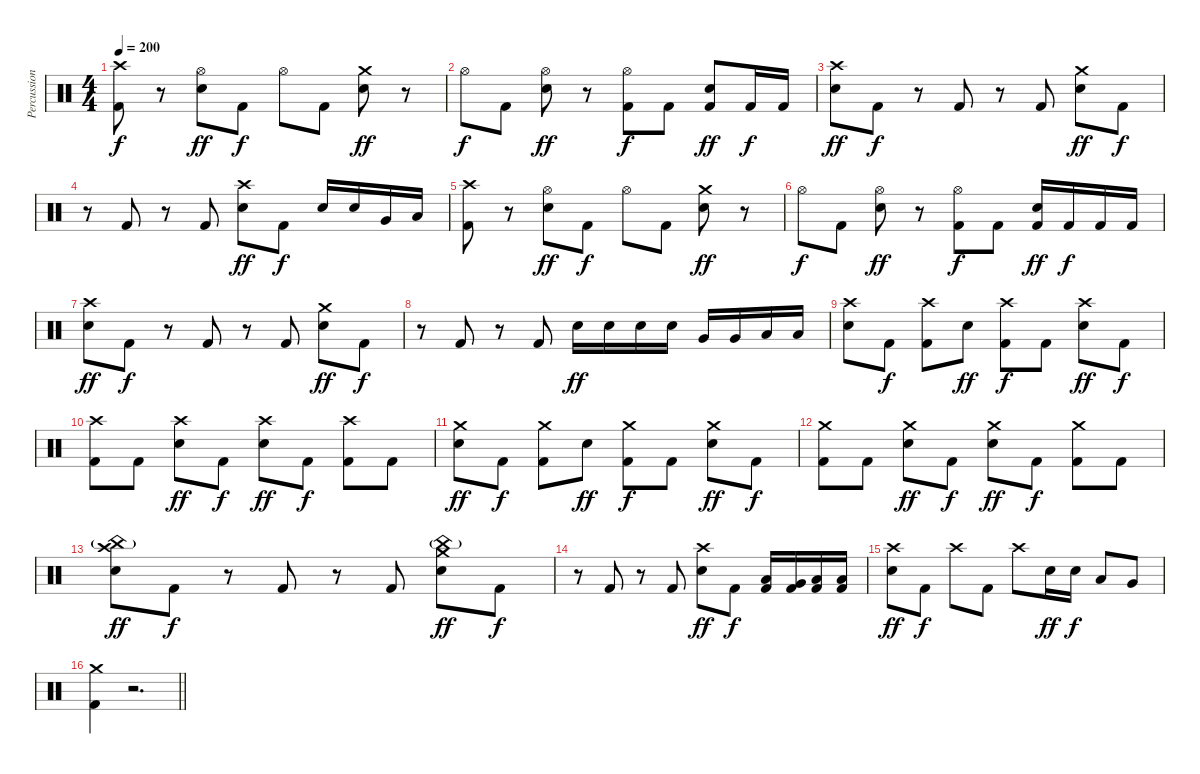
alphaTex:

\track ("Percussion" "Percussion") {instrument percussion}
\staff {score}
\articulation defaults
\ts (4 4)
\section ("" "")
\tempo 200
\clef neutral
\ks c
("Crash high (hit)" "Kick (hit) 2").8{dy f} r.8 ("Hi-Hat (open)" "Electric Snare (hit)").8{dy ff} "Kick (hit) 2".8{dy f} "Hi-Hat (open)".8 "Kick (hit) 2".8 ("Crash medium (hit)" "Electric Snare (hit)").8{dy ff} r.8 |
"Hi-Hat (open)".8{dy f} "Kick (hit) 2".8 ("Hi-Hat (open)" "Electric Snare (hit)").8{dy ff} r.8 ("Hi-Hat (open)" "Kick (hit) 2").8{dy f} "Kick (hit) 2".8 ("Electric Snare (hit)" "Kick (hit) 2").8{dy ff} "Kick (hit) 2".16{dy f} "Kick (hit) 2".16 |
("Crash high (hit)" "Electric Snare (hit)").8{dy ff} "Kick (hit) 2".8{dy f} r.8 "Kick (hit) 2".8 r.8 "Kick (hit) 2".8 ("Crash medium (hit)" "Electric Snare (hit)").8{dy ff} "Kick (hit) 2".8{dy f} |
r.8 "Kick (hit) 2".8 r.8 "Kick (hit) 2".8 ("Crash high (hit)" "Electric Snare (hit)").8{dy ff} "Kick (hit) 2".8{dy f} "Electric Snare (hit)".16 "Electric Snare (hit)".16 "Very Low Tom (hit)".16 "Low Tom (hit)".16 |
("Crash high (hit)" "Kick (hit) 2").8 r.8 ("Hi-Hat (open)" "Electric Snare (hit)").8{dy ff} "Kick (hit) 2".8{dy f} "Hi-Hat (open)".8 "Kick (hit) 2".8 ("Crash medium (hit)" "Electric Snare (hit)").8{dy ff} r.8 |
"Hi-Hat (open)".8{dy f} "Kick (hit) 2".8 ("Hi-Hat (open)" "Electric Snare (hit)").8{dy ff} r.8 ("Hi-Hat (open)" "Kick (hit) 2").8{dy f} "Kick (hit) 2".8 ("Electric Snare (hit)" "Kick (hit) 2").16{dy ff} "Kick (hit) 2".16{dy f} "Kick (hit) 2".16 "Kick (hit) 2".16 |
("Crash high (hit)" "Electric Snare (hit)").8{dy ff} "Kick (hit) 2".8{dy f} r.8 "Kick (hit) 2".8 r.8 "Kick (hit) 2".8 ("Crash medium (hit)" "Electric Snare (hit)").8{dy ff} "Kick (hit) 2".8{dy f} |
r.8 "Kick (hit) 2".8 r.8 "Kick (hit) 2".8 "Electric Snare (hit)".16{dy ff} "Electric Snare (hit)".16 "Electric Snare (hit)".16 "Electric Snare (hit)".16 "Very Low Tom (hit)".16 "Very Low Tom (hit)".16 "Low Tom (hit)".16 "Low Tom (hit)".16 |
("Crash high (hit)" "Electric Snare (hit)").8 "Kick (hit) 2".8{dy f} ("Crash high (hit)" "Kick (hit) 2").8 "Electric Snare (hit)".8{dy ff} ("Crash high (hit)" "Kick (hit) 2").8{dy f} "Kick (hit) 2".8 ("Crash high (hit)" "Electric Snare (hit)").8{dy ff} "Kick (hit) 2".8{dy f} |
("Crash high (hit)" "Kick (hit) 2").8 "Kick (hit) 2".8 ("Crash high (hit)" "Electric Snare (hit)").8{dy ff} "Kick (hit) 2".8{dy f} ("Crash high (hit)" "Electric Snare (hit)").8{dy ff} "Kick (hit) 2".8{dy f} ("Crash high (hit)" "Kick (hit) 2").8 "Kick (hit) 2".8 |
("Crash medium (hit)" "Electric Snare (hit)").8{dy ff} "Kick (hit) 2".8{dy f} ("Crash medium (hit)" "Kick (hit) 2").8 "Electric Snare (hit)".8{dy ff} ("Crash medium (hit)" "Kick (hit) 2").8{dy f} "Kick (hit) 2".8 ("Crash medium (hit)" "Electric Snare (hit)").8{dy ff} "Kick (hit) 2".8{dy f} |
("Crash medium (hit)" "Kick (hit) 2").8 "Kick (hit) 2".8 ("Crash medium (hit)" "Electric Snare (hit)").8{dy ff} "Kick (hit) 2".8{dy f} ("Crash medium (hit)" "Electric Snare (hit)").8{dy ff} "Kick (hit) 2".8{dy f} ("Crash medium (hit)" "Kick (hit) 2").8 "Kick (hit) 2".8 |
("Crash high (hit)" "China (hit)"{g} "Electric Snare (hit)").8{dy ff} "Kick (hit) 2".8{dy f} r.8 "Kick (hit) 2".8 r.8 "Kick (hit) 2".8 ("Crash medium (hit)" "China (hit)"{g} "Electric Snare (hit)").8{dy ff} "Kick (hit) 2".8{dy f} |
r.8 "Kick (hit) 2".8 r.8 "Kick (hit) 2".8 ("Crash high (hit)" "Electric Snare (hit)").8{dy ff} "Kick (hit) 2".8{dy f} ("Low Tom (hit)" "Kick (hit) 2").16 ("Very Low Tom (hit)" "Kick (hit) 2").16 ("Low Floor Tom (hit)" "Kick (hit) 2").16 ("Low Floor Tom (hit)" "Kick (hit) 2").16 |
("Crash high (hit)" "Electric Snare (hit)").8{dy ff} "Kick (hit) 2".8{dy f} "Crash high (hit)".8 "Kick (hit) 2".8 "Crash high (hit)".8 "Electric Snare (hit)".16{dy ff} "Electric Snare (hit)".16{dy f} "Low Tom (hit)".8 "Very Low Tom (hit)".8 |
\barLineRight lightlight
("Crash medium (hit)" "Kick (hit) 2").4 r.2{d}
